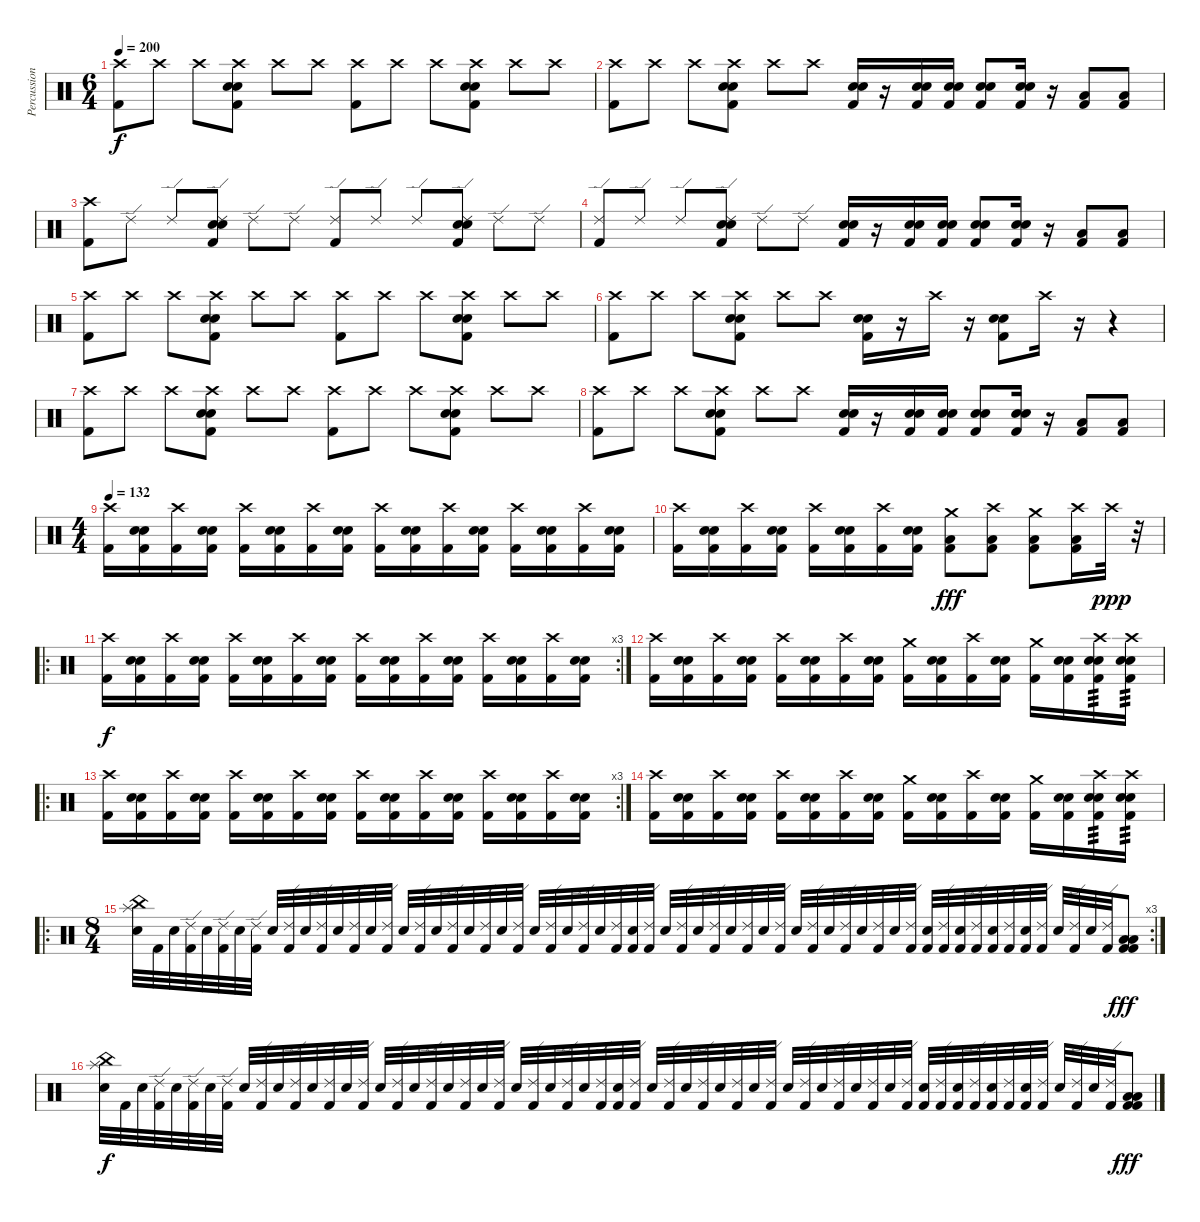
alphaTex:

\track ("Percussion" "Percussion") {instrument percussion}
\staff {score}
\articulation defaults
\ts (6 4)
\tempo 200
\clef neutral
\ks c
("Crash high (hit)" "Kick (hit) 2").8{dy f} "Crash high (hit)".8 "Crash high (hit)".8 ("Crash high (hit)" "Electric Snare (hit)" "Snare (hit) 2" "Kick (hit) 2").8 "Crash high (hit)".8 "Crash high (hit)".8 ("Crash high (hit)" "Kick (hit) 2").8 "Crash high (hit)".8 "Crash high (hit)".8 ("Crash high (hit)" "Electric Snare (hit)" "Snare (hit) 2" "Kick (hit) 2").8 "Crash high (hit)".8 "Crash high (hit)".8 |
("Crash high (hit)" "Kick (hit) 2").8 "Crash high (hit)".8 "Crash high (hit)".8 ("Crash high (hit)" "Electric Snare (hit)" "Snare (hit) 2" "Kick (hit) 2").8 "Crash high (hit)".8 "Crash high (hit)".8 ("Electric Snare (hit)" "Snare (hit) 2" "Kick (hit) 2").16 r.16 ("Electric Snare (hit)" "Snare (hit) 2" "Kick (hit) 2").16 ("Electric Snare (hit)" "Snare (hit) 2" "Kick (hit) 2").16 ("Electric Snare (hit)" "Snare (hit) 2" "Kick (hit) 2").8 ("Electric Snare (hit)" "Snare (hit) 2" "Kick (hit) 2").16 r.16 ("Low Tom (hit)" "Kick (hit) 2").8 ("Low Floor Tom (hit)" "Kick (hit) 2").8 |
("Crash high (hit)" "Kick (hit) 2").8 "Ride (edge) 2".8 "Ride (edge) 2".8 ("Ride (edge) 2" "Electric Snare (hit)" "Snare (hit) 2" "Kick (hit) 2").8 "Ride (edge) 2".8 "Ride (edge) 2".8 ("Ride (edge) 2" "Kick (hit) 2").8 "Ride (edge) 2".8 "Ride (edge) 2".8 ("Ride (edge) 2" "Electric Snare (hit)" "Snare (hit) 2" "Kick (hit) 2").8 "Ride (edge) 2".8 "Ride (edge) 2".8 |
("Ride (edge) 2" "Kick (hit) 2").8 "Ride (edge) 2".8 "Ride (edge) 2".8 ("Ride (edge) 2" "Electric Snare (hit)" "Snare (hit) 2" "Kick (hit) 2").8 "Ride (edge) 2".8 "Ride (edge) 2".8 ("Electric Snare (hit)" "Snare (hit) 2" "Kick (hit) 2").16 r.16 ("Electric Snare (hit)" "Snare (hit) 2" "Kick (hit) 2").16 ("Electric Snare (hit)" "Snare (hit) 2" "Kick (hit) 2").16 ("Electric Snare (hit)" "Snare (hit) 2" "Kick (hit) 2").8 ("Electric Snare (hit)" "Snare (hit) 2" "Kick (hit) 2").16 r.16 ("Low Tom (hit)" "Kick (hit) 2").8 ("Low Floor Tom (hit)" "Kick (hit) 2").8 |
("Crash high (hit)" "Kick (hit) 2").8 "Crash high (hit)".8 "Crash high (hit)".8 ("Crash high (hit)" "Electric Snare (hit)" "Snare (hit) 2" "Kick (hit) 2").8 "Crash high (hit)".8 "Crash high (hit)".8 ("Crash high (hit)" "Kick (hit) 2").8 "Crash high (hit)".8 "Crash high (hit)".8 ("Crash high (hit)" "Electric Snare (hit)" "Snare (hit) 2" "Kick (hit) 2").8 "Crash high (hit)".8 "Crash high (hit)".8 |
("Crash high (hit)" "Kick (hit) 2").8 "Crash high (hit)".8 "Crash high (hit)".8 ("Crash high (hit)" "Electric Snare (hit)" "Snare (hit) 2" "Kick (hit) 2").8 "Crash high (hit)".8 "Crash high (hit)".8 ("Electric Snare (hit)" "Snare (hit) 2" "Kick (hit) 2").16 r.16 "Crash high (hit)".16 r.16 ("Electric Snare (hit)" "Snare (hit) 2" "Kick (hit) 2").8 "Crash high (hit)".16 r.16 r.4 |
("Crash high (hit)" "Kick (hit) 2").8 "Crash high (hit)".8 "Crash high (hit)".8 ("Crash high (hit)" "Electric Snare (hit)" "Snare (hit) 2" "Kick (hit) 2").8 "Crash high (hit)".8 "Crash high (hit)".8 ("Crash high (hit)" "Kick (hit) 2").8 "Crash high (hit)".8 "Crash high (hit)".8 ("Crash high (hit)" "Electric Snare (hit)" "Snare (hit) 2" "Kick (hit) 2").8 "Crash high (hit)".8 "Crash high (hit)".8 |
("Crash high (hit)" "Kick (hit) 2").8 "Crash high (hit)".8 "Crash high (hit)".8 ("Crash high (hit)" "Electric Snare (hit)" "Snare (hit) 2" "Kick (hit) 2").8 "Crash high (hit)".8 "Crash high (hit)".8 ("Electric Snare (hit)" "Snare (hit) 2" "Kick (hit) 2").16 r.16 ("Electric Snare (hit)" "Snare (hit) 2" "Kick (hit) 2").16 ("Electric Snare (hit)" "Snare (hit) 2" "Kick (hit) 2").16 ("Electric Snare (hit)" "Snare (hit) 2" "Kick (hit) 2").8 ("Electric Snare (hit)" "Snare (hit) 2" "Kick (hit) 2").16 r.16 ("Low Tom (hit)" "Kick (hit) 2").8 ("Low Floor Tom (hit)" "Kick (hit) 2").8 |
\ts (4 4)
\tempo 132
("Crash high (hit)" "Kick (hit) 2").16{volume 16} ("Electric Snare (hit)" "Snare (hit) 2" "Kick (hit) 2").16 ("Crash high (hit)" "Kick (hit) 2").16 ("Electric Snare (hit)" "Snare (hit) 2" "Kick (hit) 2").16 ("Crash high (hit)" "Kick (hit) 2").16 ("Electric Snare (hit)" "Snare (hit) 2" "Kick (hit) 2").16 ("Crash high (hit)" "Kick (hit) 2").16 ("Electric Snare (hit)" "Snare (hit) 2" "Kick (hit) 2").16 ("Crash high (hit)" "Kick (hit) 2").16 ("Electric Snare (hit)" "Snare (hit) 2" "Kick (hit) 2").16 ("Crash high (hit)" "Kick (hit) 2").16 ("Electric Snare (hit)" "Snare (hit) 2" "Kick (hit) 2").16 ("Crash high (hit)" "Kick (hit) 2").16 ("Electric Snare (hit)" "Snare (hit) 2" "Kick (hit) 2").16 ("Crash high (hit)" "Kick (hit) 2").16 ("Electric Snare (hit)" "Snare (hit) 2" "Kick (hit) 2").16 |
("Crash high (hit)" "Kick (hit) 2").16 ("Electric Snare (hit)" "Snare (hit) 2" "Kick (hit) 2").16 ("Crash high (hit)" "Kick (hit) 2").16 ("Electric Snare (hit)" "Snare (hit) 2" "Kick (hit) 2").16 ("Crash high (hit)" "Kick (hit) 2").16 ("Electric Snare (hit)" "Snare (hit) 2" "Kick (hit) 2").16 ("Crash high (hit)" "Kick (hit) 2").16 ("Electric Snare (hit)" "Snare (hit) 2" "Kick (hit) 2").16 ("Crash medium (hit)" "Low Floor Tom (hit)" "Kick (hit) 2").8{dy fff} ("Crash high (hit)" "Low Floor Tom (hit)" "Kick (hit) 2").8 ("Crash medium (hit)" "Low Floor Tom (hit)" "Kick (hit) 2").8 ("Crash high (hit)" "Low Floor Tom (hit)" "Kick (hit) 2").16 "Crash high (hit)".32{dy ppp volume 0} r.32 |
\ro
\rc 3
("Crash high (hit)" "Kick (hit) 2").16{dy f volume 16} ("Electric Snare (hit)" "Snare (hit) 2" "Kick (hit) 2").16 ("Crash high (hit)" "Kick (hit) 2").16 ("Electric Snare (hit)" "Snare (hit) 2" "Kick (hit) 2").16 ("Crash high (hit)" "Kick (hit) 2").16 ("Electric Snare (hit)" "Snare (hit) 2" "Kick (hit) 2").16 ("Crash high (hit)" "Kick (hit) 2").16 ("Electric Snare (hit)" "Snare (hit) 2" "Kick (hit) 2").16 ("Crash high (hit)" "Kick (hit) 2").16 ("Electric Snare (hit)" "Snare (hit) 2" "Kick (hit) 2").16 ("Crash high (hit)" "Kick (hit) 2").16 ("Electric Snare (hit)" "Snare (hit) 2" "Kick (hit) 2").16 ("Crash high (hit)" "Kick (hit) 2").16 ("Electric Snare (hit)" "Snare (hit) 2" "Kick (hit) 2").16 ("Crash high (hit)" "Kick (hit) 2").16 ("Electric Snare (hit)" "Snare (hit) 2" "Kick (hit) 2").16 |
("Crash high (hit)" "Kick (hit) 2").16 ("Electric Snare (hit)" "Snare (hit) 2" "Kick (hit) 2").16 ("Crash high (hit)" "Kick (hit) 2").16 ("Electric Snare (hit)" "Snare (hit) 2" "Kick (hit) 2").16 ("Crash high (hit)" "Kick (hit) 2").16 ("Electric Snare (hit)" "Snare (hit) 2" "Kick (hit) 2").16 ("Crash high (hit)" "Kick (hit) 2").16 ("Electric Snare (hit)" "Snare (hit) 2" "Kick (hit) 2").16 ("Crash medium (hit)" "Kick (hit) 2").16 ("Electric Snare (hit)" "Snare (hit) 2" "Kick (hit) 2").16 ("Crash high (hit)" "Kick (hit) 2").16 ("Electric Snare (hit)" "Snare (hit) 2" "Kick (hit) 2").16 ("Crash medium (hit)" "Kick (hit) 2").16 ("Electric Snare (hit)" "Snare (hit) 2" "Kick (hit) 2").16 ("Crash high (hit)" "Electric Snare (hit)" "Snare (hit) 2" "Kick (hit) 2").16{tp 3} ("Crash high (hit)" "Electric Snare (hit)" "Snare (hit) 2" "Kick (hit) 2").16{tp 3} |
\ro
\rc 3
("Crash high (hit)" "Kick (hit) 2").16{volume 16} ("Electric Snare (hit)" "Snare (hit) 2" "Kick (hit) 2").16 ("Crash high (hit)" "Kick (hit) 2").16 ("Electric Snare (hit)" "Snare (hit) 2" "Kick (hit) 2").16 ("Crash high (hit)" "Kick (hit) 2").16 ("Electric Snare (hit)" "Snare (hit) 2" "Kick (hit) 2").16 ("Crash high (hit)" "Kick (hit) 2").16 ("Electric Snare (hit)" "Snare (hit) 2" "Kick (hit) 2").16 ("Crash high (hit)" "Kick (hit) 2").16 ("Electric Snare (hit)" "Snare (hit) 2" "Kick (hit) 2").16 ("Crash high (hit)" "Kick (hit) 2").16 ("Electric Snare (hit)" "Snare (hit) 2" "Kick (hit) 2").16 ("Crash high (hit)" "Kick (hit) 2").16 ("Electric Snare (hit)" "Snare (hit) 2" "Kick (hit) 2").16 ("Crash high (hit)" "Kick (hit) 2").16 ("Electric Snare (hit)" "Snare (hit) 2" "Kick (hit) 2").16 |
("Crash high (hit)" "Kick (hit) 2").16 ("Electric Snare (hit)" "Snare (hit) 2" "Kick (hit) 2").16 ("Crash high (hit)" "Kick (hit) 2").16 ("Electric Snare (hit)" "Snare (hit) 2" "Kick (hit) 2").16 ("Crash high (hit)" "Kick (hit) 2").16 ("Electric Snare (hit)" "Snare (hit) 2" "Kick (hit) 2").16 ("Crash high (hit)" "Kick (hit) 2").16 ("Electric Snare (hit)" "Snare (hit) 2" "Kick (hit) 2").16 ("Crash medium (hit)" "Kick (hit) 2").16 ("Electric Snare (hit)" "Snare (hit) 2" "Kick (hit) 2").16 ("Crash high (hit)" "Kick (hit) 2").16 ("Electric Snare (hit)" "Snare (hit) 2" "Kick (hit) 2").16 ("Crash medium (hit)" "Kick (hit) 2").16 ("Electric Snare (hit)" "Snare (hit) 2" "Kick (hit) 2").16 ("Crash high (hit)" "Electric Snare (hit)" "Snare (hit) 2" "Kick (hit) 2").16{tp 3} ("Crash high (hit)" "Electric Snare (hit)" "Snare (hit) 2" "Kick (hit) 2").16{tp 3} |
\ro
\rc 3
\ts (8 4)
("Splash (hit)" "China (hit)" "Snare (hit) 2").32 "Kick (hit) 2".32 "Snare (hit) 2".32 ("Ride (edge) 2" "Kick (hit) 2").32 "Snare (hit) 2".32 ("Ride (edge) 2" "Kick (hit) 2").32 "Snare (hit) 2".32 ("Ride (edge) 2" "Kick (hit) 2").32 "Snare (hit) 2".32 ("Ride (edge) 2" "Kick (hit) 2").32 "Snare (hit) 2".32 ("Ride (edge) 2" "Kick (hit) 2").32 "Snare (hit) 2".32 ("Ride (edge) 2" "Kick (hit) 2").32 "Snare (hit) 2".32 ("Ride (edge) 2" "Kick (hit) 2").32 "Snare (hit) 2".32 ("Ride (edge) 2" "Kick (hit) 2").32 "Snare (hit) 2".32 ("Ride (edge) 2" "Kick (hit) 2").32 "Snare (hit) 2".32 ("Ride (edge) 2" "Kick (hit) 2").32 "Snare (hit) 2".32 ("Ride (edge) 2" "Kick (hit) 2").32 "Snare (hit) 2".32 ("Ride (edge) 2" "Kick (hit) 2").32 "Snare (hit) 2".32 ("Ride (edge) 2" "Kick (hit) 2").32 "Snare (hit) 2".32 ("Ride (edge) 2" "Kick (hit) 2").32 ("Snare (hit) 2" "Kick (hit) 2").32 ("Ride (edge) 2" "Kick (hit) 2").32 "Snare (hit) 2".32 ("Ride (edge) 2" "Kick (hit) 2").32 "Snare (hit) 2".32 ("Ride (edge) 2" "Kick (hit) 2").32 "Snare (hit) 2".32 ("Ride (edge) 2" "Kick (hit) 2").32 "Snare (hit) 2".32 ("Ride (edge) 2" "Kick (hit) 2").32 "Snare (hit) 2".32 ("Ride (edge) 2" "Kick (hit) 2").32 "Snare (hit) 2".32 ("Ride (edge) 2" "Kick (hit) 2").32 "Snare (hit) 2".32 ("Ride (edge) 2" "Kick (hit) 2").32 "Snare (hit) 2".32 ("Ride (edge) 2" "Kick (hit) 2").32 ("Snare (hit) 2" "Kick (hit) 2").32 ("Ride (edge) 2" "Kick (hit) 2").32 ("Snare (hit) 2" "Kick (hit) 2").32 ("Ride (edge) 2" "Kick (hit) 2").32 ("Snare (hit) 2" "Kick (hit) 2").32 ("Ride (edge) 2" "Kick (hit) 2").32 ("Snare (hit) 2" "Kick (hit) 2").32 ("Ride (edge) 2" "Kick (hit) 2").32 "Snare (hit) 2".32 ("Ride (edge) 2" "Kick (hit) 2").32 "Snare (hit) 2".32 ("Ride (edge) 2" "Kick (hit) 2").32 ("Low Floor Tom (hit)" "Low Floor Tom (hit)" "Kick (hit) 2" "Kick (hit) 2").8{dy fff} |
("Splash (hit)" "China (hit)" "Snare (hit) 2").32{dy f} "Kick (hit) 2".32 "Snare (hit) 2".32 ("Ride (edge) 2" "Kick (hit) 2").32 "Snare (hit) 2".32 ("Ride (edge) 2" "Kick (hit) 2").32 "Snare (hit) 2".32 ("Ride (edge) 2" "Kick (hit) 2").32 "Snare (hit) 2".32 ("Ride (edge) 2" "Kick (hit) 2").32 "Snare (hit) 2".32 ("Ride (edge) 2" "Kick (hit) 2").32 "Snare (hit) 2".32 ("Ride (edge) 2" "Kick (hit) 2").32 "Snare (hit) 2".32 ("Ride (edge) 2" "Kick (hit) 2").32 "Snare (hit) 2".32 ("Ride (edge) 2" "Kick (hit) 2").32 "Snare (hit) 2".32 ("Ride (edge) 2" "Kick (hit) 2").32 "Snare (hit) 2".32 ("Ride (edge) 2" "Kick (hit) 2").32 "Snare (hit) 2".32 ("Ride (edge) 2" "Kick (hit) 2").32 "Snare (hit) 2".32 ("Ride (edge) 2" "Kick (hit) 2").32 "Snare (hit) 2".32 ("Ride (edge) 2" "Kick (hit) 2").32 "Snare (hit) 2".32 ("Ride (edge) 2" "Kick (hit) 2").32 ("Snare (hit) 2" "Kick (hit) 2").32 ("Ride (edge) 2" "Kick (hit) 2").32 "Snare (hit) 2".32 ("Ride (edge) 2" "Kick (hit) 2").32 "Snare (hit) 2".32 ("Ride (edge) 2" "Kick (hit) 2").32 "Snare (hit) 2".32 ("Ride (edge) 2" "Kick (hit) 2").32 "Snare (hit) 2".32 ("Ride (edge) 2" "Kick (hit) 2").32 "Snare (hit) 2".32 ("Ride (edge) 2" "Kick (hit) 2").32 "Snare (hit) 2".32 ("Ride (edge) 2" "Kick (hit) 2").32 "Snare (hit) 2".32 ("Ride (edge) 2" "Kick (hit) 2").32 "Snare (hit) 2".32 ("Ride (edge) 2" "Kick (hit) 2").32 ("Snare (hit) 2" "Kick (hit) 2").32 ("Ride (edge) 2" "Kick (hit) 2").32 ("Snare (hit) 2" "Kick (hit) 2").32 ("Ride (edge) 2" "Kick (hit) 2").32 ("Snare (hit) 2" "Kick (hit) 2").32 ("Ride (edge) 2" "Kick (hit) 2").32 ("Snare (hit) 2" "Kick (hit) 2").32 ("Ride (edge) 2" "Kick (hit) 2").32 "Snare (hit) 2".32 ("Ride (edge) 2" "Kick (hit) 2").32 "Snare (hit) 2".32 ("Ride (edge) 2" "Kick (hit) 2").32 ("Low Floor Tom (hit)" "Low Floor Tom (hit)" "Kick (hit) 2" "Kick (hit) 2").8{dy fff}
